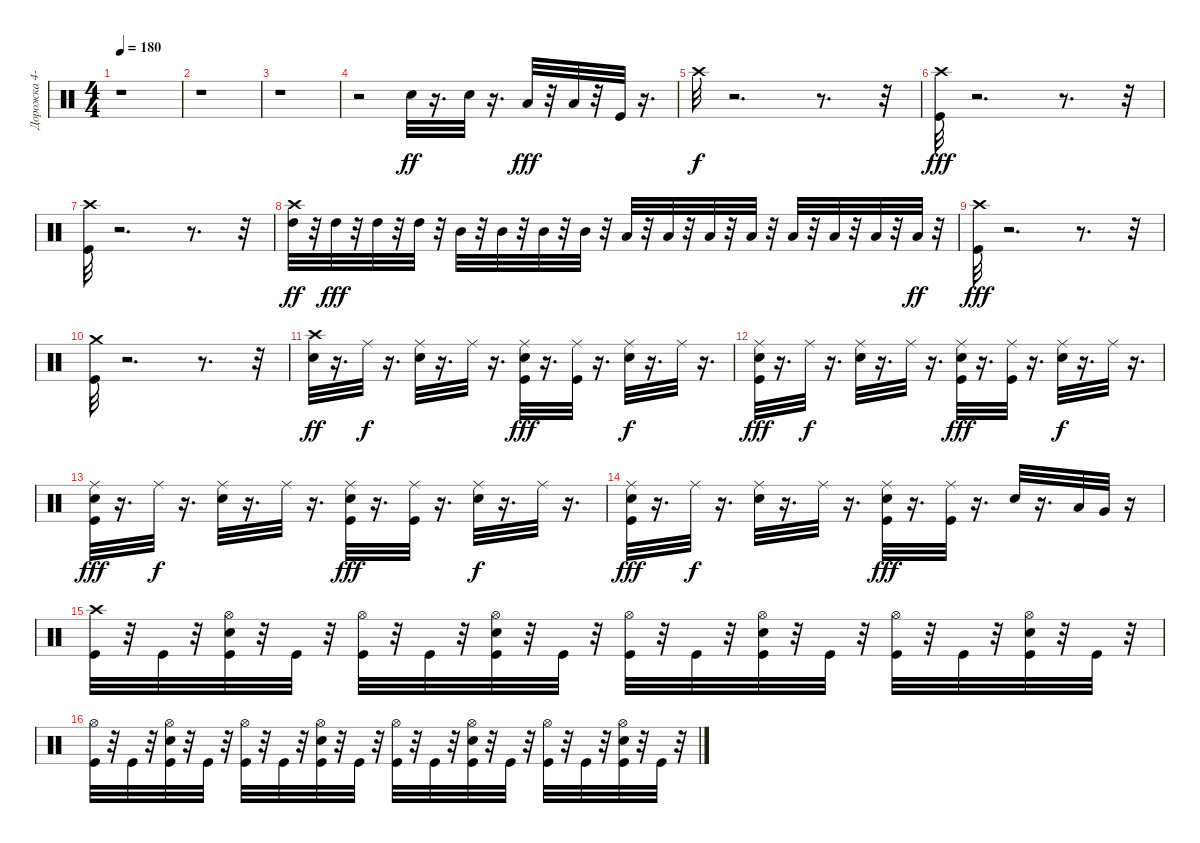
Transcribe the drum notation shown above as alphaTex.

\track ("Дорожка 4-10-11" "Дорожка 4-") {instrument percussion}
\staff {score}
\articulation defaults
\ts (4 4)
\tempo 180
\clef neutral
\ks c
r.1{dy ff} |
r.1 |
r.1 |
r.2 "Snare (hit) 2".32 r.16{d} "Snare (hit) 2".32 r.16{d} "Low Tom (hit)".32{dy fff} r.32 "Low Tom (hit)".32 r.32 "Kick (hit)".32 r.16{d} |
"Crash high (hit)".32{dy f} r.2{d} r.8{d} r.32 |
("Crash high (hit)" "Kick (hit)").32{dy fff} r.2{d} r.8{d} r.32 |
("Crash high (hit)" "Kick (hit)").32 r.2{d} r.8{d} r.32 |
("High Tom (hit)" "Crash high (hit)").32{dy ff} r.32 "High Tom (hit)".32{dy fff} r.32 "High Tom (hit)".32 r.32 "High Tom (hit)".32 r.32 "Mid Tom (hit)".32 r.32 "Mid Tom (hit)".32 r.32 "Mid Tom (hit)".32 r.32 "Mid Tom (hit)".32 r.32 "Low Tom (hit)".32 r.32 "Low Tom (hit)".32 r.32 "Low Tom (hit)".32 r.32 "Low Tom (hit)".32 r.32 "Low Floor Tom (hit)".32 r.32 "Low Floor Tom (hit)".32 r.32 "Low Floor Tom (hit)".32 r.32 "Low Floor Tom (hit)".32{dy ff} r.32 |
("Crash high (hit)" "Kick (hit)").32{dy fff} r.2{d} r.8{d} r.32 |
("Crash medium (hit)" "Kick (hit)").32 r.2{d} r.8{d} r.32 |
("Crash high (hit)" "Snare (hit) 2").32{dy ff} r.16{d} "Ride (middle)".32{dy f} r.16{d} ("Snare (hit) 2" "Ride (middle)").32 r.16{d} "Ride (middle)".32 r.16{d} ("Ride (middle)" "Snare (hit) 2" "Kick (hit)").32{dy fff} r.16{d} ("Ride (middle)" "Kick (hit)").32 r.16{d} ("Ride (middle)" "Snare (hit) 2").32{dy f} r.16{d} "Ride (middle)".32 r.16{d} |
("Ride (middle)" "Snare (hit) 2" "Kick (hit)").32{dy fff} r.16{d} "Ride (middle)".32{dy f} r.16{d} ("Snare (hit) 2" "Ride (middle)").32 r.16{d} "Ride (middle)".32 r.16{d} ("Ride (middle)" "Snare (hit) 2" "Kick (hit)").32{dy fff} r.16{d} ("Ride (middle)" "Kick (hit)").32 r.16{d} ("Ride (middle)" "Snare (hit) 2").32{dy f} r.16{d} "Ride (middle)".32 r.16{d} |
("Ride (middle)" "Snare (hit) 2" "Kick (hit)").32{dy fff} r.16{d} "Ride (middle)".32{dy f} r.16{d} ("Snare (hit) 2" "Ride (middle)").32 r.16{d} "Ride (middle)".32 r.16{d} ("Ride (middle)" "Snare (hit) 2" "Kick (hit)").32{dy fff} r.16{d} ("Ride (middle)" "Kick (hit)").32 r.16{d} ("Ride (middle)" "Snare (hit) 2").32{dy f} r.16{d} "Ride (middle)".32 r.16{d} |
("Ride (middle)" "Snare (hit) 2" "Kick (hit)").32{dy fff} r.16{d} "Ride (middle)".32{dy f} r.16{d} ("Snare (hit) 2" "Ride (middle)").32 r.16{d} "Ride (middle)".32 r.16{d} ("Ride (middle)" "Snare (hit) 2" "Kick (hit)").32{dy fff} r.16{d} ("Ride (middle)" "Kick (hit)").32 r.16{d} "Snare (hit) 2".32 r.16{d} "Low Tom (hit)".32 "Very Low Tom (hit)".32 r.16 |
("Crash high (hit)" "Kick (hit)").32 r.32 "Kick (hit)".32 r.32 ("Hi-Hat (open)" "Snare (hit) 2" "Kick (hit)").32 r.32 "Kick (hit)".32 r.32 ("Hi-Hat (open)" "Kick (hit)").32 r.32 "Kick (hit)".32 r.32 ("Snare (hit) 2" "Hi-Hat (open)" "Kick (hit)").32 r.32 "Kick (hit)".32 r.32 ("Hi-Hat (open)" "Kick (hit)").32 r.32 "Kick (hit)".32 r.32 ("Hi-Hat (open)" "Snare (hit) 2" "Kick (hit)").32 r.32 "Kick (hit)".32 r.32 ("Hi-Hat (open)" "Kick (hit)").32 r.32 "Kick (hit)".32 r.32 ("Hi-Hat (open)" "Snare (hit) 2" "Kick (hit)").32 r.32 "Kick (hit)".32 r.32 |
("Hi-Hat (open)" "Kick (hit)").32 r.32 "Kick (hit)".32 r.32 ("Hi-Hat (open)" "Snare (hit) 2" "Kick (hit)").32 r.32 "Kick (hit)".32 r.32 ("Hi-Hat (open)" "Kick (hit)").32 r.32 "Kick (hit)".32 r.32 ("Snare (hit) 2" "Hi-Hat (open)" "Kick (hit)").32 r.32 "Kick (hit)".32 r.32 ("Hi-Hat (open)" "Kick (hit)").32 r.32 "Kick (hit)".32 r.32 ("Hi-Hat (open)" "Snare (hit) 2" "Kick (hit)").32 r.32 "Kick (hit)".32 r.32 ("Hi-Hat (open)" "Kick (hit)").32 r.32 "Kick (hit)".32 r.32 ("Hi-Hat (open)" "Snare (hit) 2" "Kick (hit)").32 r.32 "Kick (hit)".32 r.32
